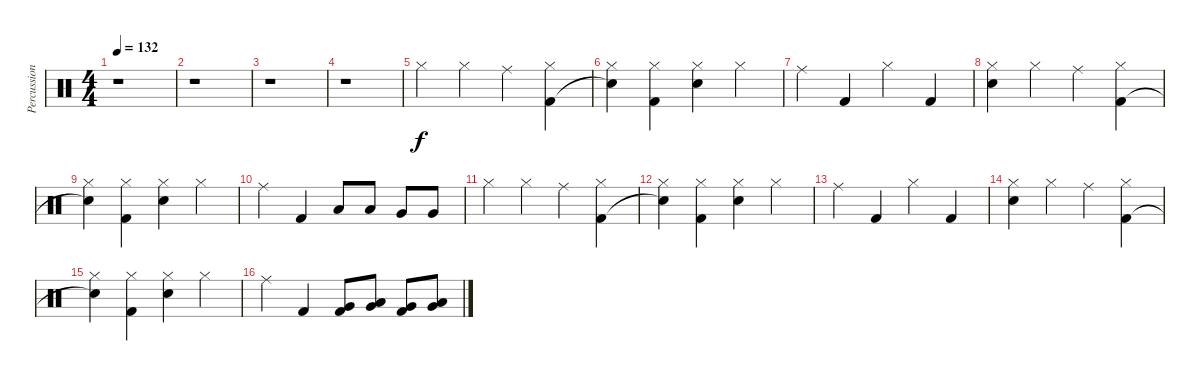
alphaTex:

\track ("Percussion" "Percussion") {instrument percussion}
\staff {score}
\articulation defaults
\ts (4 4)
\tempo 132
\clef neutral
\ks c
r.1{dy f} |
r.1 |
r.1 |
r.1 |
"Hi-Hat (closed)".4 "Hi-Hat (closed)".4 "Ride (middle)".4 ("Hi-Hat (closed)" "Kick (hit) 2").4 |
("Hi-Hat (closed)" "Snare (hit)"{t}).4 ("Hi-Hat (closed)" "Kick (hit) 2").4 ("Hi-Hat (closed)" "Electric Snare (hit)").4 "Hi-Hat (closed)".4 |
"Ride (middle)".4 "Kick (hit) 2".4 "Hi-Hat (closed)".4 "Kick (hit) 2".4 |
("Hi-Hat (closed)" "Electric Snare (hit)").4 "Hi-Hat (closed)".4 "Ride (middle)".4 ("Hi-Hat (closed)" "Kick (hit) 2").4 |
("Hi-Hat (closed)" "Snare (hit)"{t}).4 ("Hi-Hat (closed)" "Kick (hit) 2").4 ("Hi-Hat (closed)" "Electric Snare (hit)").4 "Hi-Hat (closed)".4 |
"Ride (middle)".4 "Kick (hit) 2".4 "Low Tom (hit)".8 "Low Tom (hit)".8 "Very Low Tom (hit)".8 "Very Low Tom (hit)".8 |
"Hi-Hat (closed)".4 "Hi-Hat (closed)".4 "Ride (middle)".4 ("Hi-Hat (closed)" "Kick (hit) 2").4 |
("Hi-Hat (closed)" "Snare (hit)"{t}).4 ("Hi-Hat (closed)" "Kick (hit) 2").4 ("Hi-Hat (closed)" "Electric Snare (hit)").4 "Hi-Hat (closed)".4 |
"Ride (middle)".4 "Kick (hit) 2".4 "Hi-Hat (closed)".4 "Kick (hit) 2".4 |
("Hi-Hat (closed)" "Electric Snare (hit)").4 "Hi-Hat (closed)".4 "Ride (middle)".4 ("Hi-Hat (closed)" "Kick (hit) 2").4 |
("Hi-Hat (closed)" "Snare (hit)"{t}).4 ("Hi-Hat (closed)" "Kick (hit) 2").4 ("Hi-Hat (closed)" "Electric Snare (hit)").4 "Hi-Hat (closed)".4 |
"Ride (middle)".4 "Kick (hit) 2".4 ("Kick (hit) 2" "Very Low Tom (hit)").8 ("Very Low Tom (hit)" "Low Tom (hit)").8 ("Kick (hit) 2" "Very Low Tom (hit)").8 ("Low Tom (hit)" "Very Low Tom (hit)").8
